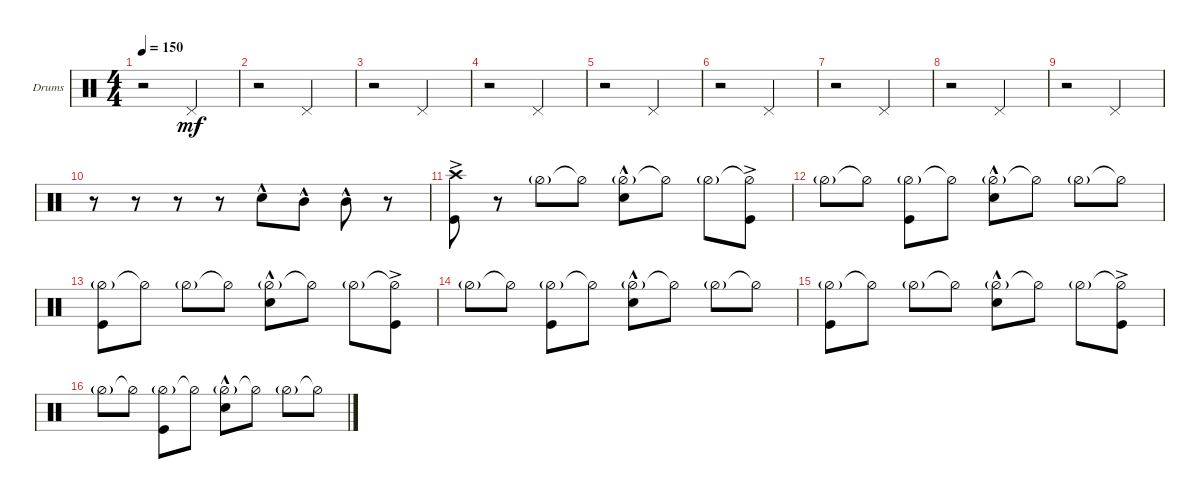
\bracketExtendMode groupsimilarinstruments
\firstSystemTrackNameOrientation horizontal
\otherSystemsTrackNameOrientation horizontal
\track ("Drumkit" "Drums") {instrument percussion}
\staff {score}
\articulation defaults
\ts (4 4)
\tempo 150
\clef neutral
\ks c
r.2{dy mf} "Pedal Hi-Hat (hit)".2 |
r.2 "Pedal Hi-Hat (hit)".2 |
r.2 "Pedal Hi-Hat (hit)".2 |
r.2 "Pedal Hi-Hat (hit)".2 |
r.2 "Pedal Hi-Hat (hit)".2 |
r.2 "Pedal Hi-Hat (hit)".2 |
r.2 "Pedal Hi-Hat (hit)".2 |
r.2 "Pedal Hi-Hat (hit)".2 |
r.2 "Pedal Hi-Hat (hit)".2 |
r.8 r.8 r.8 r.8 "Snare (hit) 2"{hac}.8 "Mid Tom (hit)"{hac}.8 "Mid Tom (hit)"{hac}.8 r.8 |
("Kick (hit)"{ac} "Crash high (hit)"{ac}).8 r.8 "Hi-Hat (half)"{g}.8 "Hi-Hat (half)"{t}.8 ("Hi-Hat (half)"{g} "Snare (hit) 2"{hac}).8 "Hi-Hat (half)"{t}.8 "Hi-Hat (half)"{g}.8 ("Hi-Hat (half)"{t} "Kick (hit)"{ac}).8 |
"Hi-Hat (half)"{g}.8 "Hi-Hat (half)"{t}.8 ("Hi-Hat (half)"{g} "Kick (hit)").8 "Hi-Hat (half)"{t}.8 ("Hi-Hat (half)"{g} "Snare (hit) 2"{hac}).8 "Hi-Hat (half)"{t}.8 "Hi-Hat (half)"{g}.8 "Hi-Hat (half)"{t}.8 |
("Hi-Hat (half)"{g} "Kick (hit)").8 "Hi-Hat (half)"{t}.8 "Hi-Hat (half)"{g}.8 "Hi-Hat (half)"{t}.8 ("Hi-Hat (half)"{g} "Snare (hit) 2"{hac}).8 "Hi-Hat (half)"{t}.8 "Hi-Hat (half)"{g}.8 ("Hi-Hat (half)"{t} "Kick (hit)"{ac}).8 |
"Hi-Hat (half)"{g}.8 "Hi-Hat (half)"{t}.8 ("Hi-Hat (half)"{g} "Kick (hit)").8 "Hi-Hat (half)"{t}.8 ("Hi-Hat (half)"{g} "Snare (hit) 2"{hac}).8 "Hi-Hat (half)"{t}.8 "Hi-Hat (half)"{g}.8 "Hi-Hat (half)"{t}.8 |
("Hi-Hat (half)"{g} "Kick (hit)").8 "Hi-Hat (half)"{t}.8 "Hi-Hat (half)"{g}.8 "Hi-Hat (half)"{t}.8 ("Hi-Hat (half)"{g} "Snare (hit) 2"{hac}).8 "Hi-Hat (half)"{t}.8 "Hi-Hat (half)"{g}.8 ("Hi-Hat (half)"{t} "Kick (hit)"{ac}).8 |
"Hi-Hat (half)"{g}.8 "Hi-Hat (half)"{t}.8 ("Hi-Hat (half)"{g} "Kick (hit)").8 "Hi-Hat (half)"{t}.8 ("Hi-Hat (half)"{g} "Snare (hit) 2"{hac}).8 "Hi-Hat (half)"{t}.8 "Hi-Hat (half)"{g}.8 "Hi-Hat (half)"{t}.8
